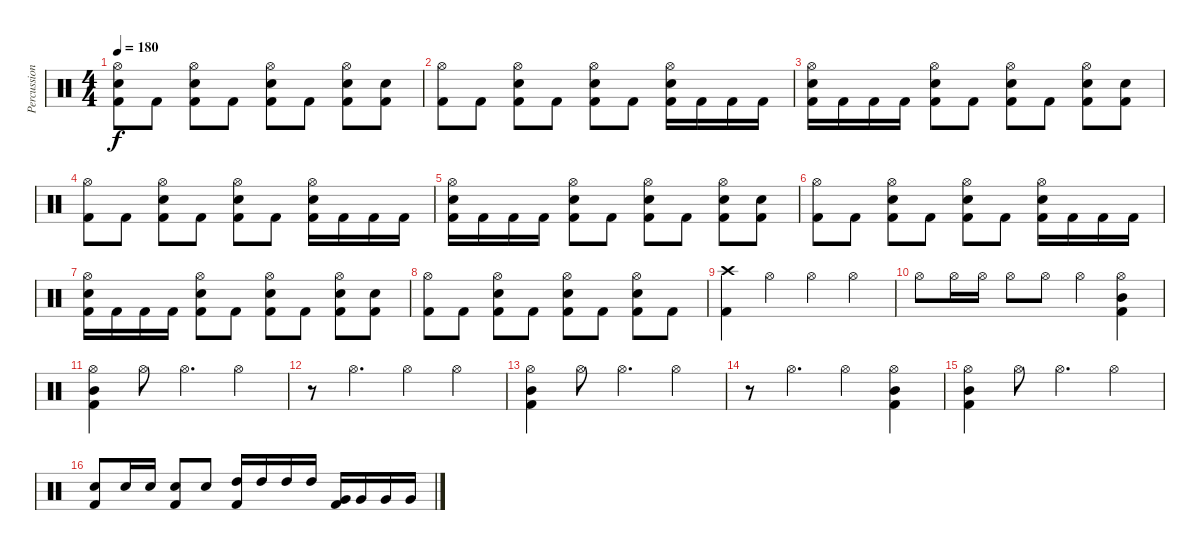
\track ("Percussion" "Percussion") {instrument percussion}
\staff {score}
\articulation defaults
\ts (4 4)
\tempo 180
\clef neutral
\ks c
("Hi-Hat (open)" "Electric Snare (hit)" "Kick (hit) 2").8{dy f} "Kick (hit) 2".8 ("Hi-Hat (open)" "Electric Snare (hit)" "Kick (hit) 2").8 "Kick (hit) 2".8 ("Hi-Hat (open)" "Electric Snare (hit)" "Kick (hit) 2").8 "Kick (hit) 2".8 ("Hi-Hat (open)" "Electric Snare (hit)" "Kick (hit) 2").8 ("Electric Snare (hit)" "Kick (hit) 2").8 |
("Hi-Hat (open)" "Kick (hit) 2").8 "Kick (hit) 2".8 ("Hi-Hat (open)" "Electric Snare (hit)" "Kick (hit) 2").8 "Kick (hit) 2".8 ("Hi-Hat (open)" "Electric Snare (hit)" "Kick (hit) 2").8 "Kick (hit) 2".8 ("Hi-Hat (open)" "Electric Snare (hit)" "Kick (hit) 2").16 "Kick (hit) 2".16 "Kick (hit) 2".16 "Kick (hit) 2".16 |
("Hi-Hat (open)" "Electric Snare (hit)" "Kick (hit) 2").16 "Kick (hit) 2".16 "Kick (hit) 2".16 "Kick (hit) 2".16 ("Hi-Hat (open)" "Electric Snare (hit)" "Kick (hit) 2").8 "Kick (hit) 2".8 ("Hi-Hat (open)" "Electric Snare (hit)" "Kick (hit) 2").8 "Kick (hit) 2".8 ("Hi-Hat (open)" "Electric Snare (hit)" "Kick (hit) 2").8 ("Electric Snare (hit)" "Kick (hit) 2").8 |
("Hi-Hat (open)" "Kick (hit) 2").8 "Kick (hit) 2".8 ("Hi-Hat (open)" "Electric Snare (hit)" "Kick (hit) 2").8 "Kick (hit) 2".8 ("Hi-Hat (open)" "Electric Snare (hit)" "Kick (hit) 2").8 "Kick (hit) 2".8 ("Hi-Hat (open)" "Electric Snare (hit)" "Kick (hit) 2").16 "Kick (hit) 2".16 "Kick (hit) 2".16 "Kick (hit) 2".16 |
("Hi-Hat (open)" "Electric Snare (hit)" "Kick (hit) 2").16 "Kick (hit) 2".16 "Kick (hit) 2".16 "Kick (hit) 2".16 ("Hi-Hat (open)" "Electric Snare (hit)" "Kick (hit) 2").8 "Kick (hit) 2".8 ("Hi-Hat (open)" "Electric Snare (hit)" "Kick (hit) 2").8 "Kick (hit) 2".8 ("Hi-Hat (open)" "Electric Snare (hit)" "Kick (hit) 2").8 ("Electric Snare (hit)" "Kick (hit) 2").8 |
("Hi-Hat (open)" "Kick (hit) 2").8 "Kick (hit) 2".8 ("Hi-Hat (open)" "Electric Snare (hit)" "Kick (hit) 2").8 "Kick (hit) 2".8 ("Hi-Hat (open)" "Electric Snare (hit)" "Kick (hit) 2").8 "Kick (hit) 2".8 ("Hi-Hat (open)" "Electric Snare (hit)" "Kick (hit) 2").16 "Kick (hit) 2".16 "Kick (hit) 2".16 "Kick (hit) 2".16 |
("Hi-Hat (open)" "Electric Snare (hit)" "Kick (hit) 2").16 "Kick (hit) 2".16 "Kick (hit) 2".16 "Kick (hit) 2".16 ("Hi-Hat (open)" "Electric Snare (hit)" "Kick (hit) 2").8 "Kick (hit) 2".8 ("Hi-Hat (open)" "Electric Snare (hit)" "Kick (hit) 2").8 "Kick (hit) 2".8 ("Hi-Hat (open)" "Electric Snare (hit)" "Kick (hit) 2").8 ("Electric Snare (hit)" "Kick (hit) 2").8 |
("Hi-Hat (open)" "Kick (hit) 2").8 "Kick (hit) 2".8 ("Hi-Hat (open)" "Electric Snare (hit)" "Kick (hit) 2").8 "Kick (hit) 2".8 ("Hi-Hat (open)" "Electric Snare (hit)" "Kick (hit) 2").8 "Kick (hit) 2".8 ("Hi-Hat (open)" "Electric Snare (hit)" "Kick (hit) 2").8 "Kick (hit) 2".8 |
("Crash high (hit)" "Kick (hit) 2").4 "Hi-Hat (open)".4 "Hi-Hat (open)".4 "Hi-Hat (open)".4 |
"Hi-Hat (open)".8 "Hi-Hat (open)".16 "Hi-Hat (open)".16 "Hi-Hat (open)".8 "Hi-Hat (open)".8 "Hi-Hat (open)".4 ("Hi-Hat (open)" "Mid Tom (hit)" "Kick (hit) 2").4 |
("Hi-Hat (open)" "Mid Tom (hit)" "Kick (hit) 2").4 "Hi-Hat (open)".8 "Hi-Hat (open)".4{d} "Hi-Hat (open)".4 |
r.8 "Hi-Hat (open)".4{d} "Hi-Hat (open)".4 "Hi-Hat (open)".4 |
("Hi-Hat (open)" "Mid Tom (hit)" "Kick (hit) 2").4 "Hi-Hat (open)".8 "Hi-Hat (open)".4{d} "Hi-Hat (open)".4 |
r.8 "Hi-Hat (open)".4{d} "Hi-Hat (open)".4 ("Hi-Hat (open)" "Mid Tom (hit)" "Kick (hit) 2").4 |
("Hi-Hat (open)" "Mid Tom (hit)" "Kick (hit) 2").4 "Hi-Hat (open)".8 "Hi-Hat (open)".4{d} "Hi-Hat (open)".4 |
("Electric Snare (hit)" "Kick (hit) 2").8 "Electric Snare (hit)".16 "Electric Snare (hit)".16 ("Electric Snare (hit)" "Kick (hit) 2").8 "Electric Snare (hit)".8 ("High Tom (hit)" "Kick (hit) 2").16 "High Tom (hit)".16 "High Tom (hit)".16 "High Tom (hit)".16 ("Very Low Tom (hit)" "Kick (hit) 2").16 "Very Low Tom (hit)".16 "Very Low Tom (hit)".16 "Very Low Tom (hit)".16
